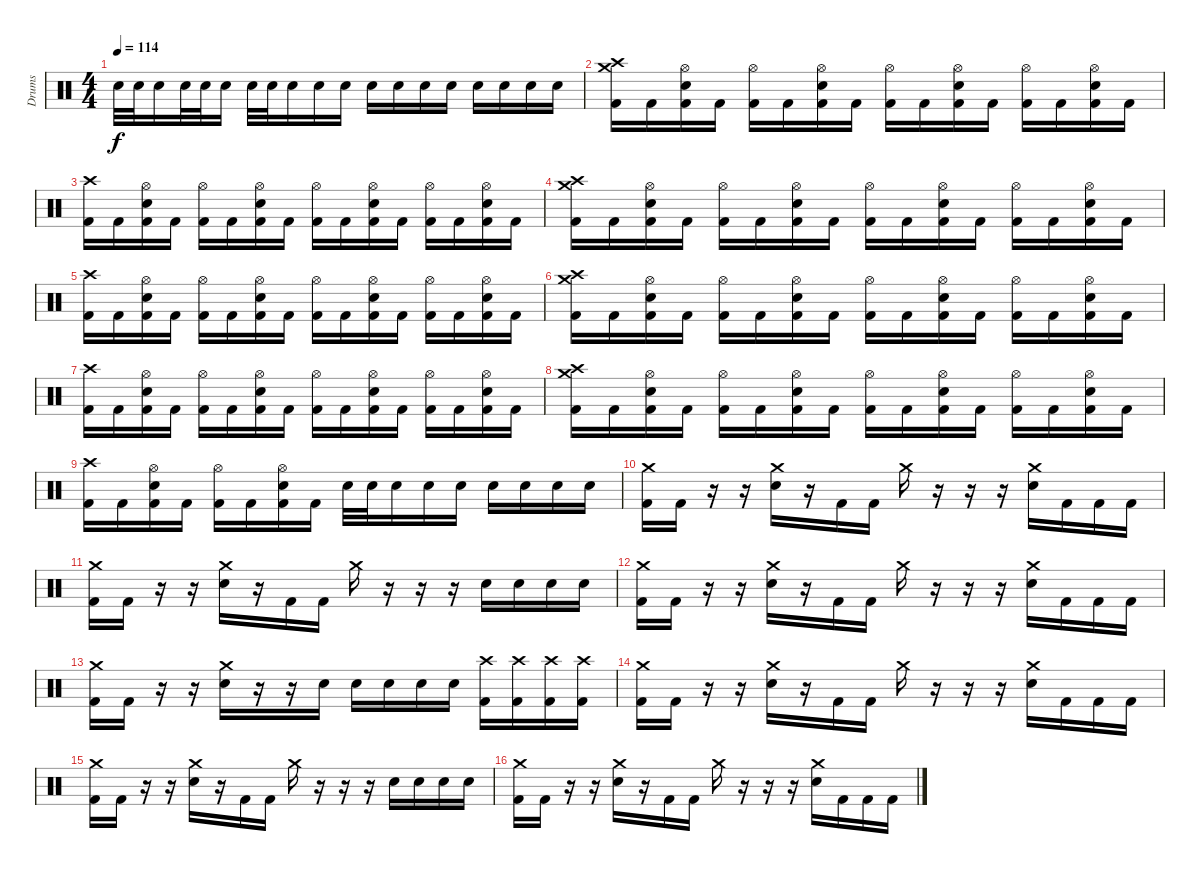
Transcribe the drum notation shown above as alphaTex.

\track ("Drums" "Drums") {instrument percussion}
\staff {score}
\articulation defaults
\ts (4 4)
\tempo 114
\clef neutral
\ks c "Snare (hit) 2".32{dy f} "Snare (hit) 2".32 "Snare (hit) 2".16 "Snare (hit) 2".32 "Snare (hit) 2".32 "Snare (hit) 2".16 "Snare (hit) 2".32 "Snare (hit) 2".32 "Snare (hit) 2".16 "Snare (hit) 2".16 "Snare (hit) 2".16 "Snare (hit) 2".16 "Snare (hit) 2".16 "Snare (hit) 2".16 "Snare (hit) 2".16 "Snare (hit) 2".16 "Snare (hit) 2".16 "Snare (hit) 2".16 "Snare (hit) 2".16
|
("Crash medium (hit)" "Crash high (hit)" "Kick (hit) 2").16 "Kick (hit) 2".16 ("Hi-Hat (open)" "Snare (hit) 2" "Kick (hit) 2").16 "Kick (hit) 2".16 ("Hi-Hat (open)" "Kick (hit) 2").16 "Kick (hit) 2".16 ("Hi-Hat (open)" "Snare (hit) 2" "Kick (hit) 2").16 "Kick (hit) 2".16 ("Hi-Hat (open)" "Kick (hit) 2").16 "Kick (hit) 2".16 ("Hi-Hat (open)" "Snare (hit) 2" "Kick (hit) 2").16 "Kick (hit) 2".16 ("Hi-Hat (open)" "Kick (hit) 2").16 "Kick (hit) 2".16 ("Hi-Hat (open)" "Snare (hit) 2" "Kick (hit) 2").16 "Kick (hit) 2".16 |
("Crash high (hit)" "Kick (hit) 2").16 "Kick (hit) 2".16 ("Hi-Hat (open)" "Snare (hit) 2" "Kick (hit) 2").16 "Kick (hit) 2".16 ("Hi-Hat (open)" "Kick (hit) 2").16 "Kick (hit) 2".16 ("Hi-Hat (open)" "Snare (hit) 2" "Kick (hit) 2").16 "Kick (hit) 2".16 ("Hi-Hat (open)" "Kick (hit) 2").16 "Kick (hit) 2".16 ("Hi-Hat (open)" "Snare (hit) 2" "Kick (hit) 2").16 "Kick (hit) 2".16 ("Hi-Hat (open)" "Kick (hit) 2").16 "Kick (hit) 2".16 ("Hi-Hat (open)" "Snare (hit) 2" "Kick (hit) 2").16 "Kick (hit) 2".16 |
("Crash medium (hit)" "Crash high (hit)" "Kick (hit) 2").16 "Kick (hit) 2".16 ("Hi-Hat (open)" "Snare (hit) 2" "Kick (hit) 2").16 "Kick (hit) 2".16 ("Hi-Hat (open)" "Kick (hit) 2").16 "Kick (hit) 2".16 ("Hi-Hat (open)" "Snare (hit) 2" "Kick (hit) 2").16 "Kick (hit) 2".16 ("Hi-Hat (open)" "Kick (hit) 2").16 "Kick (hit) 2".16 ("Hi-Hat (open)" "Snare (hit) 2" "Kick (hit) 2").16 "Kick (hit) 2".16 ("Hi-Hat (open)" "Kick (hit) 2").16 "Kick (hit) 2".16 ("Hi-Hat (open)" "Snare (hit) 2" "Kick (hit) 2").16 "Kick (hit) 2".16 |
("Crash high (hit)" "Kick (hit) 2").16 "Kick (hit) 2".16 ("Hi-Hat (open)" "Snare (hit) 2" "Kick (hit) 2").16 "Kick (hit) 2".16 ("Hi-Hat (open)" "Kick (hit) 2").16 "Kick (hit) 2".16 ("Hi-Hat (open)" "Snare (hit) 2" "Kick (hit) 2").16 "Kick (hit) 2".16 ("Hi-Hat (open)" "Kick (hit) 2").16 "Kick (hit) 2".16 ("Hi-Hat (open)" "Snare (hit) 2" "Kick (hit) 2").16 "Kick (hit) 2".16 ("Hi-Hat (open)" "Kick (hit) 2").16 "Kick (hit) 2".16 ("Hi-Hat (open)" "Snare (hit) 2" "Kick (hit) 2").16 "Kick (hit) 2".16 |
("Crash medium (hit)" "Crash high (hit)" "Kick (hit) 2").16 "Kick (hit) 2".16 ("Hi-Hat (open)" "Snare (hit) 2" "Kick (hit) 2").16 "Kick (hit) 2".16 ("Hi-Hat (open)" "Kick (hit) 2").16 "Kick (hit) 2".16 ("Hi-Hat (open)" "Snare (hit) 2" "Kick (hit) 2").16 "Kick (hit) 2".16 ("Hi-Hat (open)" "Kick (hit) 2").16 "Kick (hit) 2".16 ("Hi-Hat (open)" "Snare (hit) 2" "Kick (hit) 2").16 "Kick (hit) 2".16 ("Hi-Hat (open)" "Kick (hit) 2").16 "Kick (hit) 2".16 ("Hi-Hat (open)" "Snare (hit) 2" "Kick (hit) 2").16 "Kick (hit) 2".16 |
("Crash high (hit)" "Kick (hit) 2").16 "Kick (hit) 2".16 ("Hi-Hat (open)" "Snare (hit) 2" "Kick (hit) 2").16 "Kick (hit) 2".16 ("Hi-Hat (open)" "Kick (hit) 2").16 "Kick (hit) 2".16 ("Hi-Hat (open)" "Snare (hit) 2" "Kick (hit) 2").16 "Kick (hit) 2".16 ("Hi-Hat (open)" "Kick (hit) 2").16 "Kick (hit) 2".16 ("Hi-Hat (open)" "Snare (hit) 2" "Kick (hit) 2").16 "Kick (hit) 2".16 ("Hi-Hat (open)" "Kick (hit) 2").16 "Kick (hit) 2".16 ("Hi-Hat (open)" "Snare (hit) 2" "Kick (hit) 2").16 "Kick (hit) 2".16 |
("Crash medium (hit)" "Crash high (hit)" "Kick (hit) 2").16 "Kick (hit) 2".16 ("Hi-Hat (open)" "Snare (hit) 2" "Kick (hit) 2").16 "Kick (hit) 2".16 ("Hi-Hat (open)" "Kick (hit) 2").16 "Kick (hit) 2".16 ("Hi-Hat (open)" "Snare (hit) 2" "Kick (hit) 2").16 "Kick (hit) 2".16 ("Hi-Hat (open)" "Kick (hit) 2").16 "Kick (hit) 2".16 ("Hi-Hat (open)" "Snare (hit) 2" "Kick (hit) 2").16 "Kick (hit) 2".16 ("Hi-Hat (open)" "Kick (hit) 2").16 "Kick (hit) 2".16 ("Hi-Hat (open)" "Snare (hit) 2" "Kick (hit) 2").16 "Kick (hit) 2".16 |
("Crash high (hit)" "Kick (hit) 2").16 "Kick (hit) 2".16 ("Hi-Hat (open)" "Snare (hit) 2" "Kick (hit) 2").16 "Kick (hit) 2".16 ("Hi-Hat (open)" "Kick (hit) 2").16 "Kick (hit) 2".16 ("Hi-Hat (open)" "Snare (hit) 2" "Kick (hit) 2").16 "Kick (hit) 2".16 "Snare (hit) 2".32 "Snare (hit) 2".32 "Snare (hit) 2".16 "Snare (hit) 2".16 "Snare (hit) 2".16 "Snare (hit) 2".16 "Snare (hit) 2".16 "Snare (hit) 2".16 "Snare (hit) 2".16 |
("Crash medium (hit)" "Kick (hit) 2").16 "Kick (hit) 2".16 r.16 r.16 ("Crash medium (hit)" "Snare (hit) 2").16 r.16 "Kick (hit) 2".16 "Kick (hit) 2".16 "Crash medium (hit)".16 r.16 r.16 r.16 ("Crash medium (hit)" "Snare (hit) 2").16 "Kick (hit) 2".16 "Kick (hit) 2".16 "Kick (hit) 2".16 |
("Crash medium (hit)" "Kick (hit) 2").16 "Kick (hit) 2".16 r.16 r.16 ("Crash medium (hit)" "Snare (hit) 2").16 r.16 "Kick (hit) 2".16 "Kick (hit) 2".16 "Crash medium (hit)".16 r.16 r.16 r.16 "Snare (hit) 2".16 "Snare (hit) 2".16 "Snare (hit) 2".16 "Snare (hit) 2".16 |
("Crash medium (hit)" "Kick (hit) 2").16 "Kick (hit) 2".16 r.16 r.16 ("Crash medium (hit)" "Snare (hit) 2").16 r.16 "Kick (hit) 2".16 "Kick (hit) 2".16 "Crash medium (hit)".16 r.16 r.16 r.16 ("Crash medium (hit)" "Snare (hit) 2").16 "Kick (hit) 2".16 "Kick (hit) 2".16 "Kick (hit) 2".16 |
("Crash medium (hit)" "Kick (hit) 2").16 "Kick (hit) 2".16 r.16 r.16 ("Crash medium (hit)" "Snare (hit) 2").16 r.16 r.16 "Snare (hit) 2".16 "Snare (hit) 2".16 "Snare (hit) 2".16 "Snare (hit) 2".16 "Snare (hit) 2".16 ("Crash high (hit)" "Kick (hit) 2").16 ("Crash high (hit)" "Kick (hit) 2").16 ("Crash high (hit)" "Kick (hit) 2").16 ("Crash high (hit)" "Kick (hit) 2").16 |
("Crash medium (hit)" "Kick (hit) 2").16 "Kick (hit) 2".16 r.16 r.16 ("Crash medium (hit)" "Snare (hit) 2").16 r.16 "Kick (hit) 2".16 "Kick (hit) 2".16 "Crash medium (hit)".16 r.16 r.16 r.16 ("Crash medium (hit)" "Snare (hit) 2").16 "Kick (hit) 2".16 "Kick (hit) 2".16 "Kick (hit) 2".16 |
("Crash medium (hit)" "Kick (hit) 2").16 "Kick (hit) 2".16 r.16 r.16 ("Crash medium (hit)" "Snare (hit) 2").16 r.16 "Kick (hit) 2".16 "Kick (hit) 2".16 "Crash medium (hit)".16 r.16 r.16 r.16 "Snare (hit) 2".16 "Snare (hit) 2".16 "Snare (hit) 2".16 "Snare (hit) 2".16 |
("Crash medium (hit)" "Kick (hit) 2").16 "Kick (hit) 2".16 r.16 r.16 ("Crash medium (hit)" "Snare (hit) 2").16 r.16 "Kick (hit) 2".16 "Kick (hit) 2".16 "Crash medium (hit)".16 r.16 r.16 r.16 ("Crash medium (hit)" "Snare (hit) 2").16 "Kick (hit) 2".16 "Kick (hit) 2".16 "Kick (hit) 2".16
